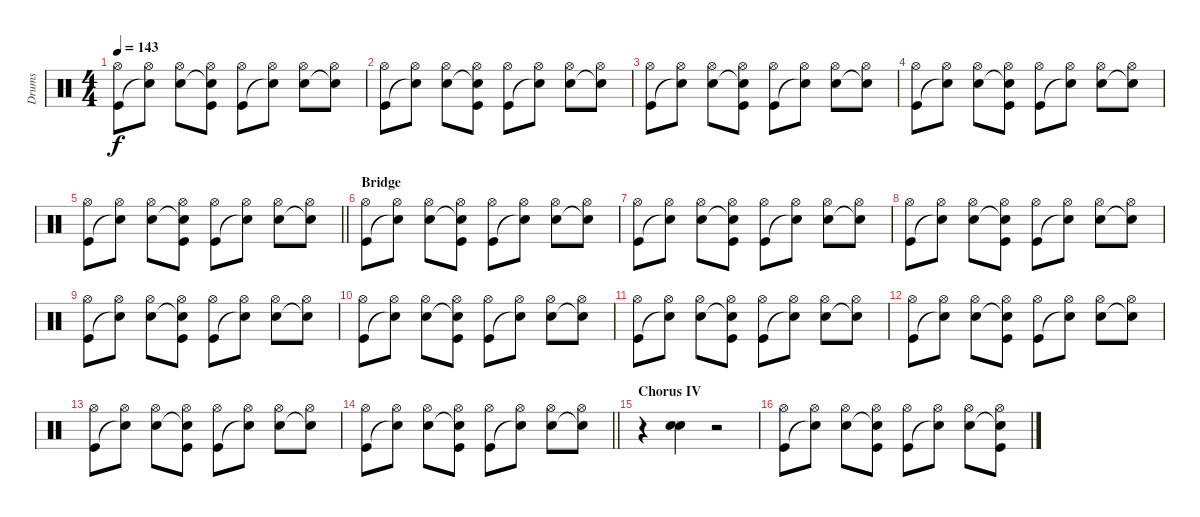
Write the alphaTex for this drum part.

\track ("Drums" "Drums") {instrument percussion}
\staff {score}
\articulation defaults
\ts (4 4)
\tempo 143
\clef neutral
\ks c
("Hi-Hat (open)" "Kick (hit)").8{dy f} ("Hi-Hat (open)" "Snare (hit)"{t}).8 ("Hi-Hat (open)" "Snare (hit) 2").8 ("Hi-Hat (open)" "Snare (hit)"{t} "Kick (hit)").8 ("Hi-Hat (open)" "Kick (hit)").8 ("Hi-Hat (open)" "Snare (hit)"{t}).8 ("Hi-Hat (open)" "Snare (hit) 2").8 ("Hi-Hat (open)" "Snare (hit)"{t}).8 |
("Hi-Hat (open)" "Kick (hit)").8 ("Hi-Hat (open)" "Snare (hit)"{t}).8 ("Hi-Hat (open)" "Snare (hit) 2").8 ("Hi-Hat (open)" "Snare (hit)"{t} "Kick (hit)").8 ("Hi-Hat (open)" "Kick (hit)").8 ("Hi-Hat (open)" "Snare (hit)"{t}).8 ("Hi-Hat (open)" "Snare (hit) 2").8 ("Hi-Hat (open)" "Snare (hit)"{t}).8 |
("Hi-Hat (open)" "Kick (hit)").8 ("Hi-Hat (open)" "Snare (hit)"{t}).8 ("Hi-Hat (open)" "Snare (hit) 2").8 ("Hi-Hat (open)" "Snare (hit)"{t} "Kick (hit)").8 ("Hi-Hat (open)" "Kick (hit)").8 ("Hi-Hat (open)" "Snare (hit)"{t}).8 ("Hi-Hat (open)" "Snare (hit) 2").8 ("Hi-Hat (open)" "Snare (hit)"{t}).8 |
("Hi-Hat (open)" "Kick (hit)").8 ("Hi-Hat (open)" "Snare (hit)"{t}).8 ("Hi-Hat (open)" "Snare (hit) 2").8 ("Hi-Hat (open)" "Snare (hit)"{t} "Kick (hit)").8 ("Hi-Hat (open)" "Kick (hit)").8 ("Hi-Hat (open)" "Snare (hit)"{t}).8 ("Hi-Hat (open)" "Snare (hit) 2").8 ("Hi-Hat (open)" "Snare (hit)"{t}).8 |
\barLineRight lightlight
("Hi-Hat (open)" "Kick (hit)").8 ("Hi-Hat (open)" "Snare (hit)"{t}).8 ("Hi-Hat (open)" "Snare (hit) 2").8 ("Hi-Hat (open)" "Snare (hit)"{t} "Kick (hit)").8 ("Hi-Hat (open)" "Kick (hit)").8 ("Hi-Hat (open)" "Snare (hit)"{t}).8 ("Hi-Hat (open)" "Snare (hit) 2").8 ("Hi-Hat (open)" "Snare (hit)"{t}).8 |
\section ("" "Bridge")
("Hi-Hat (open)" "Kick (hit)").8 ("Hi-Hat (open)" "Snare (hit)"{t}).8 ("Hi-Hat (open)" "Snare (hit) 2").8 ("Hi-Hat (open)" "Snare (hit)"{t} "Kick (hit)").8 ("Hi-Hat (open)" "Kick (hit)").8 ("Hi-Hat (open)" "Snare (hit)"{t}).8 ("Hi-Hat (open)" "Snare (hit) 2").8 ("Hi-Hat (open)" "Snare (hit)"{t}).8 |
("Hi-Hat (open)" "Kick (hit)").8 ("Hi-Hat (open)" "Snare (hit)"{t}).8 ("Hi-Hat (open)" "Snare (hit) 2").8 ("Hi-Hat (open)" "Snare (hit)"{t} "Kick (hit)").8 ("Hi-Hat (open)" "Kick (hit)").8 ("Hi-Hat (open)" "Snare (hit)"{t}).8 ("Hi-Hat (open)" "Snare (hit) 2").8 ("Hi-Hat (open)" "Snare (hit)"{t}).8 |
("Hi-Hat (open)" "Kick (hit)").8 ("Hi-Hat (open)" "Snare (hit)"{t}).8 ("Hi-Hat (open)" "Snare (hit) 2").8 ("Hi-Hat (open)" "Snare (hit)"{t} "Kick (hit)").8 ("Hi-Hat (open)" "Kick (hit)").8 ("Hi-Hat (open)" "Snare (hit)"{t}).8 ("Hi-Hat (open)" "Snare (hit) 2").8 ("Hi-Hat (open)" "Snare (hit)"{t}).8 |
("Hi-Hat (open)" "Kick (hit)").8 ("Hi-Hat (open)" "Snare (hit)"{t}).8 ("Hi-Hat (open)" "Snare (hit) 2").8 ("Hi-Hat (open)" "Snare (hit)"{t} "Kick (hit)").8 ("Hi-Hat (open)" "Kick (hit)").8 ("Hi-Hat (open)" "Snare (hit)"{t}).8 ("Hi-Hat (open)" "Snare (hit) 2").8 ("Hi-Hat (open)" "Snare (hit)"{t}).8 |
("Hi-Hat (open)" "Kick (hit)").8 ("Hi-Hat (open)" "Snare (hit)"{t}).8 ("Hi-Hat (open)" "Snare (hit) 2").8 ("Hi-Hat (open)" "Snare (hit)"{t} "Kick (hit)").8 ("Hi-Hat (open)" "Kick (hit)").8 ("Hi-Hat (open)" "Snare (hit)"{t}).8 ("Hi-Hat (open)" "Snare (hit) 2").8 ("Hi-Hat (open)" "Snare (hit)"{t}).8 |
("Hi-Hat (open)" "Kick (hit)").8 ("Hi-Hat (open)" "Snare (hit)"{t}).8 ("Hi-Hat (open)" "Snare (hit) 2").8 ("Hi-Hat (open)" "Snare (hit)"{t} "Kick (hit)").8 ("Hi-Hat (open)" "Kick (hit)").8 ("Hi-Hat (open)" "Snare (hit)"{t}).8 ("Hi-Hat (open)" "Snare (hit) 2").8 ("Hi-Hat (open)" "Snare (hit)"{t}).8 |
("Hi-Hat (open)" "Kick (hit)").8 ("Hi-Hat (open)" "Snare (hit)"{t}).8 ("Hi-Hat (open)" "Snare (hit) 2").8 ("Hi-Hat (open)" "Snare (hit)"{t} "Kick (hit)").8 ("Hi-Hat (open)" "Kick (hit)").8 ("Hi-Hat (open)" "Snare (hit)"{t}).8 ("Hi-Hat (open)" "Snare (hit) 2").8 ("Hi-Hat (open)" "Snare (hit)"{t}).8 |
("Hi-Hat (open)" "Kick (hit)").8 ("Hi-Hat (open)" "Snare (hit)"{t}).8 ("Hi-Hat (open)" "Snare (hit) 2").8 ("Hi-Hat (open)" "Snare (hit)"{t} "Kick (hit)").8 ("Hi-Hat (open)" "Kick (hit)").8 ("Hi-Hat (open)" "Snare (hit)"{t}).8 ("Hi-Hat (open)" "Snare (hit) 2").8 ("Hi-Hat (open)" "Snare (hit)"{t}).8 |
\barLineRight lightlight
("Hi-Hat (open)" "Kick (hit)").8 ("Hi-Hat (open)" "Snare (hit)"{t}).8 ("Hi-Hat (open)" "Snare (hit) 2").8 ("Hi-Hat (open)" "Snare (hit)"{t} "Kick (hit)").8 ("Hi-Hat (open)" "Kick (hit)").8 ("Hi-Hat (open)" "Snare (hit)"{t}).8 ("Hi-Hat (open)" "Snare (hit) 2").8 ("Hi-Hat (open)" "Snare (hit)"{t}).8 |
\section ("" "Chorus IV")
r.4 ("Electric Snare (hit)" "Snare (hit) 2").4 r.2 |
("Hi-Hat (open)" "Kick (hit)").8 ("Hi-Hat (open)" "Snare (hit)"{t}).8 ("Hi-Hat (open)" "Snare (hit) 2").8 ("Hi-Hat (open)" "Snare (hit)"{t} "Kick (hit)").8 ("Hi-Hat (open)" "Kick (hit)").8 ("Hi-Hat (open)" "Snare (hit)"{t}).8 ("Hi-Hat (open)" "Snare (hit) 2").8 ("Hi-Hat (open)" "Snare (hit)"{t} "Kick (hit)").8
